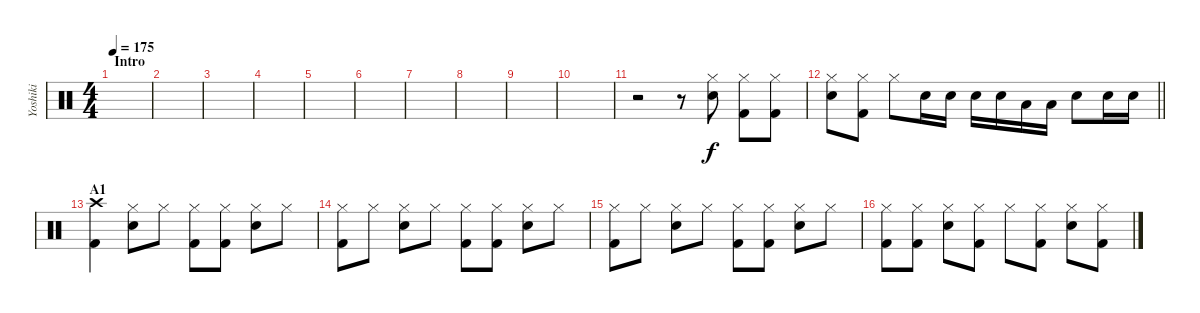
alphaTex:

\track ("Yoshiki" "Yoshiki") {instrument percussion}
\staff {score}
\articulation defaults
\ts (4 4)
\section ("" "Intro")
\tempo 175
\clef neutral
\ks c
|
|
|
|
|
|
|
|
|
|
r.2 r.8 ("Hi-Hat (closed)" "Electric Snare (hit)").8 ("Hi-Hat (closed)" "Kick (hit) 2").8 ("Hi-Hat (closed)" "Kick (hit) 2").8 |
\barLineRight lightlight
("Hi-Hat (closed)" "Electric Snare (hit)").8 ("Hi-Hat (closed)" "Kick (hit) 2").8 "Hi-Hat (closed)".8 "Electric Snare (hit)".16 "Electric Snare (hit)".16 "Electric Snare (hit)".16 "Electric Snare (hit)".16 "Low Tom (hit)".16 "Low Tom (hit)".16 "Electric Snare (hit)".8 "Electric Snare (hit)".16 "Electric Snare (hit)".16 |
\section ("" "A1")
("Crash high (hit)" "Kick (hit) 2").4 ("Hi-Hat (closed)" "Electric Snare (hit)").8 "Hi-Hat (closed)".8 ("Hi-Hat (closed)" "Kick (hit) 2").8 ("Hi-Hat (closed)" "Kick (hit) 2").8 ("Hi-Hat (closed)" "Electric Snare (hit)").8 "Hi-Hat (closed)".8 |
("Hi-Hat (closed)" "Kick (hit) 2").8 "Hi-Hat (closed)".8 ("Hi-Hat (closed)" "Electric Snare (hit)").8 "Hi-Hat (closed)".8 ("Hi-Hat (closed)" "Kick (hit) 2").8 ("Hi-Hat (closed)" "Kick (hit) 2").8 ("Hi-Hat (closed)" "Electric Snare (hit)").8 "Hi-Hat (closed)".8 |
("Hi-Hat (closed)" "Kick (hit) 2").8 "Hi-Hat (closed)".8 ("Hi-Hat (closed)" "Electric Snare (hit)").8 "Hi-Hat (closed)".8 ("Hi-Hat (closed)" "Kick (hit) 2").8 ("Hi-Hat (closed)" "Kick (hit) 2").8 ("Hi-Hat (closed)" "Electric Snare (hit)").8 "Hi-Hat (closed)".8 |
("Hi-Hat (closed)" "Kick (hit) 2").8 ("Hi-Hat (closed)" "Kick (hit) 2").8 ("Hi-Hat (closed)" "Electric Snare (hit)").8 ("Hi-Hat (closed)" "Kick (hit) 2").8 "Hi-Hat (closed)".8 ("Hi-Hat (closed)" "Kick (hit) 2").8 ("Hi-Hat (closed)" "Electric Snare (hit)").8 ("Hi-Hat (closed)" "Kick (hit) 2").8
